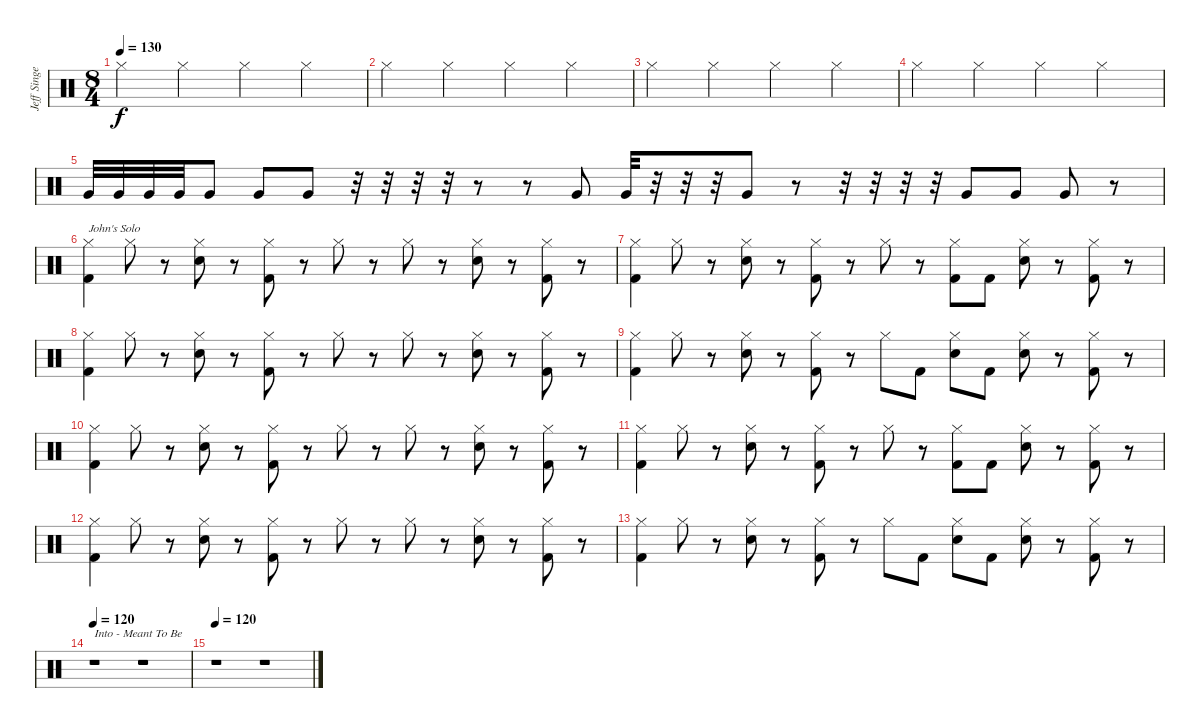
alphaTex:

\track ("Jeff Singer" "Jeff Singe") {instrument percussion}
\staff {score}
\articulation defaults
\ts (8 4)
\tempo 130
\clef neutral
\ks c "Hi-Hat (closed)".2{dy f} "Hi-Hat (closed)".2 "Hi-Hat (closed)".2 "Hi-Hat (closed)".2
|
"Hi-Hat (closed)".2 "Hi-Hat (closed)".2 "Hi-Hat (closed)".2 "Hi-Hat (closed)".2 |
"Hi-Hat (closed)".2 "Hi-Hat (closed)".2 "Hi-Hat (closed)".2 "Hi-Hat (closed)".2 |
"Hi-Hat (closed)".2 "Hi-Hat (closed)".2 "Hi-Hat (closed)".2 "Hi-Hat (closed)".2 |
"Very Low Tom (hit)".32 "Very Low Tom (hit)".32 "Very Low Tom (hit)".32 "Very Low Tom (hit)".32 "Very Low Tom (hit)".8 "Very Low Tom (hit)".8 "Very Low Tom (hit)".8 r.32 r.32 r.32 r.32 r.8 r.8 "Very Low Tom (hit)".8 "Very Low Tom (hit)".32 r.32 r.32 r.32 "Very Low Tom (hit)".8 r.8 r.32 r.32 r.32 r.32 "Very Low Tom (hit)".8 "Very Low Tom (hit)".8 "Very Low Tom (hit)".8 r.8 |
("Hi-Hat (closed)" "Kick (hit) 2").4{txt "John's Solo"} "Hi-Hat (closed)".8 r.8 ("Hi-Hat (closed)" "Snare (hit) 2").8 r.8 ("Hi-Hat (closed)" "Kick (hit) 2").8 r.8 "Hi-Hat (closed)".8 r.8 "Hi-Hat (closed)".8 r.8 ("Hi-Hat (closed)" "Snare (hit) 2").8 r.8 ("Hi-Hat (closed)" "Kick (hit) 2").8 r.8 |
("Hi-Hat (closed)" "Kick (hit) 2").4 "Hi-Hat (closed)".8 r.8 ("Hi-Hat (closed)" "Snare (hit) 2").8 r.8 ("Hi-Hat (closed)" "Kick (hit) 2").8 r.8 "Hi-Hat (closed)".8 r.8 ("Hi-Hat (closed)" "Kick (hit) 2").8 "Kick (hit) 2".8 ("Hi-Hat (closed)" "Snare (hit) 2").8 r.8 ("Hi-Hat (closed)" "Kick (hit) 2").8 r.8 |
("Hi-Hat (closed)" "Kick (hit) 2").4 "Hi-Hat (closed)".8 r.8 ("Hi-Hat (closed)" "Snare (hit) 2").8 r.8 ("Hi-Hat (closed)" "Kick (hit) 2").8 r.8 "Hi-Hat (closed)".8 r.8 "Hi-Hat (closed)".8 r.8 ("Hi-Hat (closed)" "Snare (hit) 2").8 r.8 ("Hi-Hat (closed)" "Kick (hit) 2").8 r.8 |
("Hi-Hat (closed)" "Kick (hit) 2").4 "Hi-Hat (closed)".8 r.8 ("Hi-Hat (closed)" "Snare (hit) 2").8 r.8 ("Hi-Hat (closed)" "Kick (hit) 2").8 r.8 "Hi-Hat (closed)".8 "Kick (hit) 2".8 ("Hi-Hat (closed)" "Snare (hit) 2").8 "Kick (hit) 2".8 ("Hi-Hat (closed)" "Snare (hit) 2").8 r.8 ("Hi-Hat (closed)" "Kick (hit) 2").8 r.8 |
("Hi-Hat (closed)" "Kick (hit) 2").4 "Hi-Hat (closed)".8 r.8 ("Hi-Hat (closed)" "Snare (hit) 2").8 r.8 ("Hi-Hat (closed)" "Kick (hit) 2").8 r.8 "Hi-Hat (closed)".8 r.8 "Hi-Hat (closed)".8 r.8 ("Hi-Hat (closed)" "Snare (hit) 2").8 r.8 ("Hi-Hat (closed)" "Kick (hit) 2").8 r.8 |
("Hi-Hat (closed)" "Kick (hit) 2").4 "Hi-Hat (closed)".8 r.8 ("Hi-Hat (closed)" "Snare (hit) 2").8 r.8 ("Hi-Hat (closed)" "Kick (hit) 2").8 r.8 "Hi-Hat (closed)".8 r.8 ("Hi-Hat (closed)" "Kick (hit) 2").8 "Kick (hit) 2".8 ("Hi-Hat (closed)" "Snare (hit) 2").8 r.8 ("Hi-Hat (closed)" "Kick (hit) 2").8 r.8 |
("Hi-Hat (closed)" "Kick (hit) 2").4 "Hi-Hat (closed)".8 r.8 ("Hi-Hat (closed)" "Snare (hit) 2").8 r.8 ("Hi-Hat (closed)" "Kick (hit) 2").8 r.8 "Hi-Hat (closed)".8 r.8 "Hi-Hat (closed)".8 r.8 ("Hi-Hat (closed)" "Snare (hit) 2").8 r.8 ("Hi-Hat (closed)" "Kick (hit) 2").8 r.8 |
("Hi-Hat (closed)" "Kick (hit) 2").4 "Hi-Hat (closed)".8 r.8 ("Hi-Hat (closed)" "Snare (hit) 2").8 r.8 ("Hi-Hat (closed)" "Kick (hit) 2").8 r.8 "Hi-Hat (closed)".8 "Kick (hit) 2".8 ("Hi-Hat (closed)" "Snare (hit) 2").8 "Kick (hit) 2".8 ("Hi-Hat (closed)" "Snare (hit) 2").8 r.8 ("Hi-Hat (closed)" "Kick (hit) 2").8 r.8 |
\tempo 120
r.1{txt "Into - Meant To Be"} r.1 |
\tempo 120
r.1 r.1
